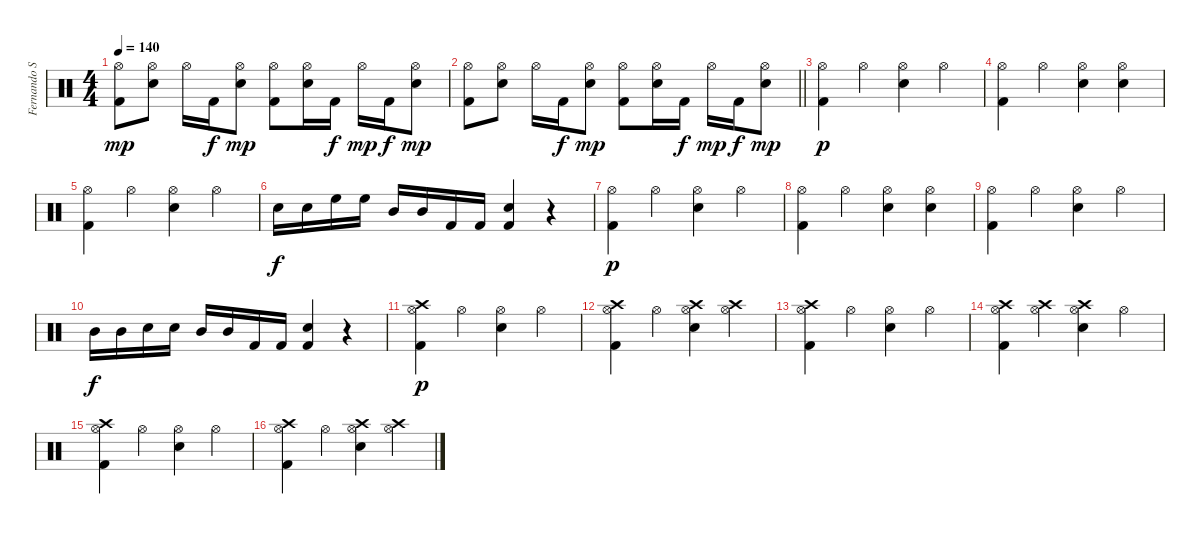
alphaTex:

\track ("Fernando Scarcella" "Fernando S") {instrument percussion}
\staff {score}
\articulation defaults
\ts (4 4)
\tempo 140
\clef neutral
\ks c
("Hi-Hat (open)" "Kick (hit) 2").8{dy mp} ("Hi-Hat (open)" "Snare (hit) 2").8 "Hi-Hat (open)".16 "Kick (hit) 2".16{dy f} ("Hi-Hat (open)" "Snare (hit) 2").8{dy mp} ("Hi-Hat (open)" "Kick (hit) 2").8 ("Hi-Hat (open)" "Snare (hit) 2").16 "Kick (hit) 2".16{dy f} "Hi-Hat (open)".16{dy mp} "Kick (hit) 2".16{dy f} ("Hi-Hat (open)" "Snare (hit) 2").8{dy mp} |
\barLineRight lightlight
("Hi-Hat (open)" "Kick (hit) 2").8 ("Hi-Hat (open)" "Snare (hit) 2").8 "Hi-Hat (open)".16 "Kick (hit) 2".16{dy f} ("Hi-Hat (open)" "Snare (hit) 2").8{dy mp} ("Hi-Hat (open)" "Kick (hit) 2").8 ("Hi-Hat (open)" "Snare (hit) 2").16 "Kick (hit) 2".16{dy f} "Hi-Hat (open)".16{dy mp} "Kick (hit) 2".16{dy f} ("Hi-Hat (open)" "Snare (hit) 2").8{dy mp} |
("Hi-Hat (open)" "Kick (hit) 2").4{dy p} "Hi-Hat (open)".4 ("Hi-Hat (open)" "Snare (hit) 2").4 "Hi-Hat (open)".4 |
("Hi-Hat (open)" "Kick (hit) 2").4 "Hi-Hat (open)".4 ("Hi-Hat (open)" "Snare (hit) 2").4 ("Hi-Hat (open)" "Snare (hit) 2").4 |
("Hi-Hat (open)" "Kick (hit) 2").4 "Hi-Hat (open)".4 ("Hi-Hat (open)" "Snare (hit) 2").4 "Hi-Hat (open)".4 |
"Snare (hit) 2".16{dy f} "Snare (hit) 2".16 "High Floor Tom (hit)".16 "High Floor Tom (hit)".16 "Mid Tom (hit)".16 "Mid Tom (hit)".16 "Kick (hit) 2".16 "Kick (hit) 2".16 ("Snare (hit) 2" "Kick (hit) 2").4 r.4 |
("Hi-Hat (open)" "Kick (hit) 2").4{dy p} "Hi-Hat (open)".4 ("Hi-Hat (open)" "Snare (hit) 2").4 "Hi-Hat (open)".4 |
("Hi-Hat (open)" "Kick (hit) 2").4 "Hi-Hat (open)".4 ("Hi-Hat (open)" "Snare (hit) 2").4 ("Hi-Hat (open)" "Snare (hit) 2").4 |
("Hi-Hat (open)" "Kick (hit) 2").4 "Hi-Hat (open)".4 ("Hi-Hat (open)" "Snare (hit) 2").4 "Hi-Hat (open)".4 |
"Mid Tom (hit)".16{dy f} "Mid Tom (hit)".16 "Snare (hit) 2".16 "Snare (hit) 2".16 "Mid Tom (hit)".16 "Mid Tom (hit)".16 "Kick (hit) 2".16 "Kick (hit) 2".16 ("Snare (hit) 2" "Kick (hit) 2").4 r.4 |
("Hi-Hat (open)" "Kick (hit) 2" "Crash high (hit)").4{dy p} "Hi-Hat (open)".4 ("Hi-Hat (open)" "Snare (hit) 2").4 "Hi-Hat (open)".4 |
("Hi-Hat (open)" "Kick (hit) 2" "Crash high (hit)").4 "Hi-Hat (open)".4 ("Hi-Hat (open)" "Snare (hit) 2" "Crash high (hit)").4 ("Hi-Hat (open)" "Crash high (hit)").4 |
("Hi-Hat (open)" "Kick (hit) 2" "Crash high (hit)").4 "Hi-Hat (open)".4 ("Hi-Hat (open)" "Snare (hit) 2").4 "Hi-Hat (open)".4 |
("Hi-Hat (open)" "Kick (hit) 2" "Crash high (hit)").4 ("Hi-Hat (open)" "Crash high (hit)").4 ("Hi-Hat (open)" "Snare (hit) 2" "Crash high (hit)").4 "Hi-Hat (open)".4 |
("Hi-Hat (open)" "Kick (hit) 2" "Crash high (hit)").4 "Hi-Hat (open)".4 ("Hi-Hat (open)" "Snare (hit) 2").4 "Hi-Hat (open)".4 |
("Hi-Hat (open)" "Kick (hit) 2" "Crash high (hit)").4 "Hi-Hat (open)".4 ("Hi-Hat (open)" "Snare (hit) 2" "Crash high (hit)").4 ("Hi-Hat (open)" "Crash high (hit)").4
